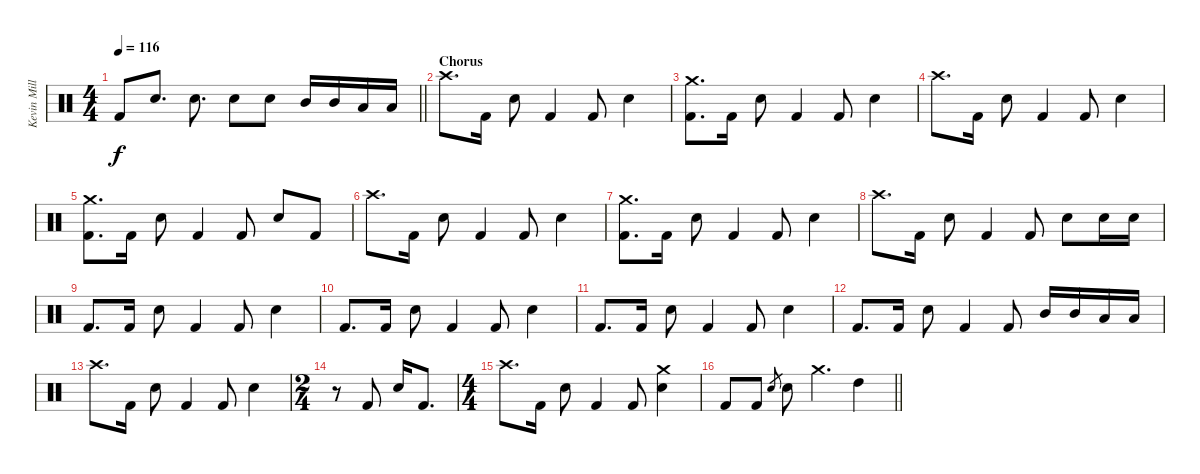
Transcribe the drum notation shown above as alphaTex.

\track ("Kevin Miller (Drums)" "Kevin Mill") {instrument percussion}
\staff {score}
\articulation defaults
\ts (4 4)
\tempo 116
\clef neutral
\barLineRight lightlight
\ks c "Kick (hit) 2".8{dy f} "Electric Snare (hit)".8{d} "Electric Snare (hit)".8{d} "Electric Snare (hit)".8 "Electric Snare (hit)".8 "Mid Tom (hit)".16 "Mid Tom (hit)".16 "Low Tom (hit)".16 "Low Tom (hit)".16
|
\section ("" "Chorus")
"Crash high (hit)".8{d} "Kick (hit) 2".16 "Electric Snare (hit)".8 "Kick (hit) 2".4 "Kick (hit) 2".8 "Electric Snare (hit)".4 |
("Crash medium (hit)" "Kick (hit) 2").8{d} "Kick (hit) 2".16 "Electric Snare (hit)".8 "Kick (hit) 2".4 "Kick (hit) 2".8 "Electric Snare (hit)".4 |
"Crash high (hit)".8{d} "Kick (hit) 2".16 "Electric Snare (hit)".8 "Kick (hit) 2".4 "Kick (hit) 2".8 "Electric Snare (hit)".4 |
("Crash medium (hit)" "Kick (hit) 2").8{d} "Kick (hit) 2".16 "Electric Snare (hit)".8 "Kick (hit) 2".4 "Kick (hit) 2".8 "Electric Snare (hit)".8 "Kick (hit) 2".8 |
"Crash high (hit)".8{d} "Kick (hit) 2".16 "Electric Snare (hit)".8 "Kick (hit) 2".4 "Kick (hit) 2".8 "Electric Snare (hit)".4 |
("Crash medium (hit)" "Kick (hit) 2").8{d} "Kick (hit) 2".16 "Electric Snare (hit)".8 "Kick (hit) 2".4 "Kick (hit) 2".8 "Electric Snare (hit)".4 |
"Crash high (hit)".8{d} "Kick (hit) 2".16 "Electric Snare (hit)".8 "Kick (hit) 2".4 "Kick (hit) 2".8 "Electric Snare (hit)".8 "Electric Snare (hit)".16 "Electric Snare (hit)".16 |
"Kick (hit) 2".8{d} "Kick (hit) 2".16 "Electric Snare (hit)".8 "Kick (hit) 2".4 "Kick (hit) 2".8 "Electric Snare (hit)".4 |
"Kick (hit) 2".8{d} "Kick (hit) 2".16 "Electric Snare (hit)".8 "Kick (hit) 2".4 "Kick (hit) 2".8 "Electric Snare (hit)".4 |
"Kick (hit) 2".8{d} "Kick (hit) 2".16 "Electric Snare (hit)".8 "Kick (hit) 2".4 "Kick (hit) 2".8 "Electric Snare (hit)".4 |
"Kick (hit) 2".8{d} "Kick (hit) 2".16 "Electric Snare (hit)".8 "Kick (hit) 2".4 "Kick (hit) 2".8 "Mid Tom (hit)".16 "Mid Tom (hit)".16 "Low Tom (hit)".16 "Low Tom (hit)".16 |
"Crash high (hit)".8{d} "Kick (hit) 2".16 "Electric Snare (hit)".8 "Kick (hit) 2".4 "Kick (hit) 2".8 "Electric Snare (hit)".4 |
\ts (2 4)
r.8 "Kick (hit) 2".8 "Electric Snare (hit)".16 "Kick (hit) 2".8{d} |
\ts (4 4)
"Crash high (hit)".8{d} "Kick (hit) 2".16 "Electric Snare (hit)".8 "Kick (hit) 2".4 "Kick (hit) 2".8 ("Crash medium (hit)" "Electric Snare (hit)").4 |
\barLineRight lightlight "Kick (hit) 2".8 "Kick (hit) 2".8 "Electric Snare (hit)".8{gr} "Electric Snare (hit)".8 "Crash medium (hit)".4{d} "High Tom (hit)".4
